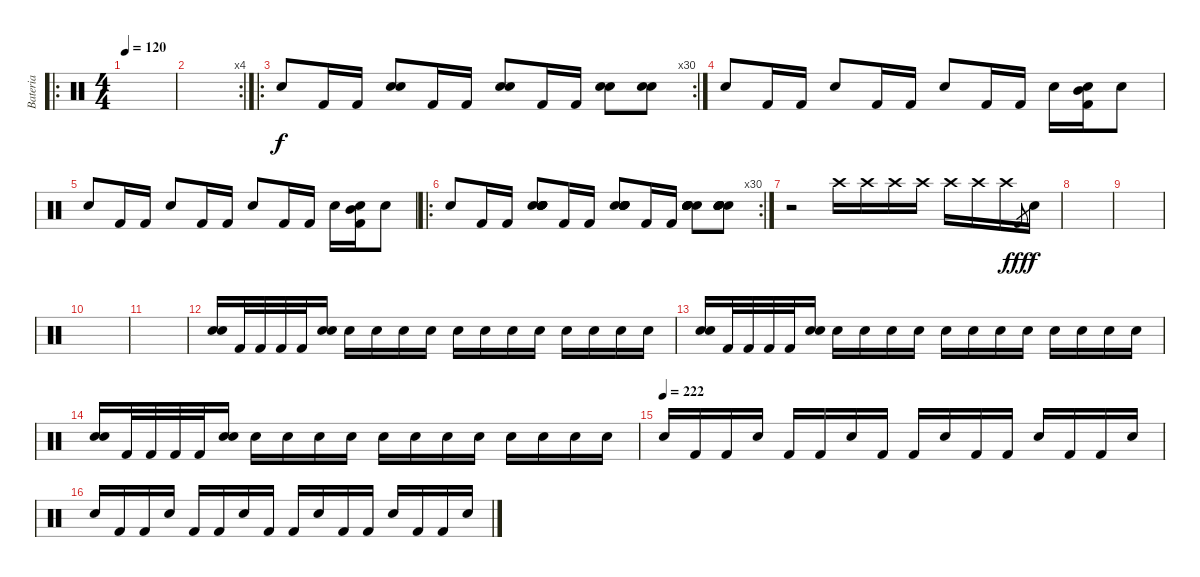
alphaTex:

\track ("Bateria" "Bateria") {instrument percussion}
\staff {score}
\articulation defaults
\ro
\ts (4 4)
\tempo 120
\clef neutral
\ks c
|
\rc 4
|
\ro
\rc 30 "Snare (hit) 2".8 "Kick (hit) 2".16 "Kick (hit) 2".16
("Snare (hit) 2" "Electric Snare (hit)").8 "Kick (hit) 2".16 "Kick (hit) 2".16 ("Snare (hit) 2" "Electric Snare (hit)").8 "Kick (hit) 2".16 "Kick (hit) 2".16 ("Snare (hit) 2" "Electric Snare (hit)").8 ("Snare (hit) 2" "Electric Snare (hit)").8 |
"Snare (hit) 2".8{volume 11} "Kick (hit) 2".16 "Kick (hit) 2".16 "Snare (hit) 2".8 "Kick (hit) 2".16 "Kick (hit) 2".16 "Snare (hit) 2".8 "Kick (hit) 2".16 "Kick (hit) 2".16 "Snare (hit) 2".16 ("Snare (hit) 2" "Kick (hit) 2" "Mid Tom (hit)").16 "Snare (hit) 2".8 |
"Snare (hit) 2".8{volume 11} "Kick (hit) 2".16 "Kick (hit) 2".16 "Snare (hit) 2".8 "Kick (hit) 2".16 "Kick (hit) 2".16 "Snare (hit) 2".8 "Kick (hit) 2".16 "Kick (hit) 2".16 "Snare (hit) 2".16 ("Snare (hit) 2" "Kick (hit) 2" "Mid Tom (hit)").16 "Snare (hit) 2".8 |
\ro
\rc 30 "Snare (hit) 2".8{volume 16} "Kick (hit) 2".16 "Kick (hit) 2".16
("Snare (hit) 2" "Snare (hit) 2" "Snare (hit) 2" "Snare (hit) 2" "Snare (hit) 2" "Snare (hit) 2").8 "Kick (hit) 2".16 "Kick (hit) 2".16 ("Snare (hit) 2" "Snare (hit) 2" "Snare (hit) 2" "Snare (hit) 2" "Snare (hit) 2" "Snare (hit) 2").8 "Kick (hit) 2".16 "Kick (hit) 2".16 ("Snare (hit) 2" "Snare (hit) 2" "Snare (hit) 2" "Snare (hit) 2" "Snare (hit) 2" "Snare (hit) 2").8 ("Snare (hit) 2" "Snare (hit) 2" "Snare (hit) 2" "Snare (hit) 2" "Snare (hit) 2" "Snare (hit) 2").8 |
r.2 "Crash high (hit)".16 "Crash high (hit)".16 "Crash high (hit)".16 "Crash high (hit)".16 "Crash high (hit)".16 "Crash high (hit)".16 "Crash high (hit)".16 "Kick (hit) 2".8{gr dy fff} "Snare (hit) 2".16{dy f} |
|
|
|
|
("Electric Snare (hit)" "Snare (hit) 2").16 "Kick (hit) 2".32 "Kick (hit) 2".32 "Kick (hit) 2".32 "Kick (hit) 2".32 ("Snare (hit) 2" "Electric Snare (hit)").16 "Snare (hit) 2".16 "Snare (hit) 2".16 "Snare (hit) 2".16 "Snare (hit) 2".16 "Snare (hit) 2".16 "Snare (hit) 2".16 "Snare (hit) 2".16 "Snare (hit) 2".16 "Snare (hit) 2".16 "Snare (hit) 2".16 "Snare (hit) 2".16 "Snare (hit) 2".16 |
("Electric Snare (hit)" "Snare (hit) 2").16 "Kick (hit) 2".32 "Kick (hit) 2".32 "Kick (hit) 2".32 "Kick (hit) 2".32 ("Snare (hit) 2" "Electric Snare (hit)").16 "Snare (hit) 2".16 "Snare (hit) 2".16 "Snare (hit) 2".16 "Snare (hit) 2".16 "Snare (hit) 2".16 "Snare (hit) 2".16 "Snare (hit) 2".16 "Snare (hit) 2".16 "Snare (hit) 2".16 "Snare (hit) 2".16 "Snare (hit) 2".16 "Snare (hit) 2".16 |
("Electric Snare (hit)" "Snare (hit) 2").16 "Kick (hit) 2".32 "Kick (hit) 2".32 "Kick (hit) 2".32 "Kick (hit) 2".32 ("Snare (hit) 2" "Electric Snare (hit)").16 "Snare (hit) 2".16 "Snare (hit) 2".16 "Snare (hit) 2".16 "Snare (hit) 2".16 "Snare (hit) 2".16 "Snare (hit) 2".16 "Snare (hit) 2".16 "Snare (hit) 2".16 "Snare (hit) 2".16 "Snare (hit) 2".16 "Snare (hit) 2".16 "Snare (hit) 2".16 |
\tempo (222)
"Snare (hit) 2".16 "Kick (hit) 2".16 "Kick (hit) 2".16 "Snare (hit) 2".16 "Kick (hit) 2".16 "Kick (hit) 2".16 "Snare (hit) 2".16 "Kick (hit) 2".16 "Kick (hit) 2".16 "Snare (hit) 2".16 "Kick (hit) 2".16 "Kick (hit) 2".16 "Snare (hit) 2".16 "Kick (hit) 2".16 "Kick (hit) 2".16 "Snare (hit) 2".16 |
"Snare (hit) 2".16 "Kick (hit) 2".16 "Kick (hit) 2".16 "Snare (hit) 2".16 "Kick (hit) 2".16 "Kick (hit) 2".16 "Snare (hit) 2".16 "Kick (hit) 2".16 "Kick (hit) 2".16 "Snare (hit) 2".16 "Kick (hit) 2".16 "Kick (hit) 2".16 "Snare (hit) 2".16 "Kick (hit) 2".16 "Kick (hit) 2".16 "Snare (hit) 2".16
